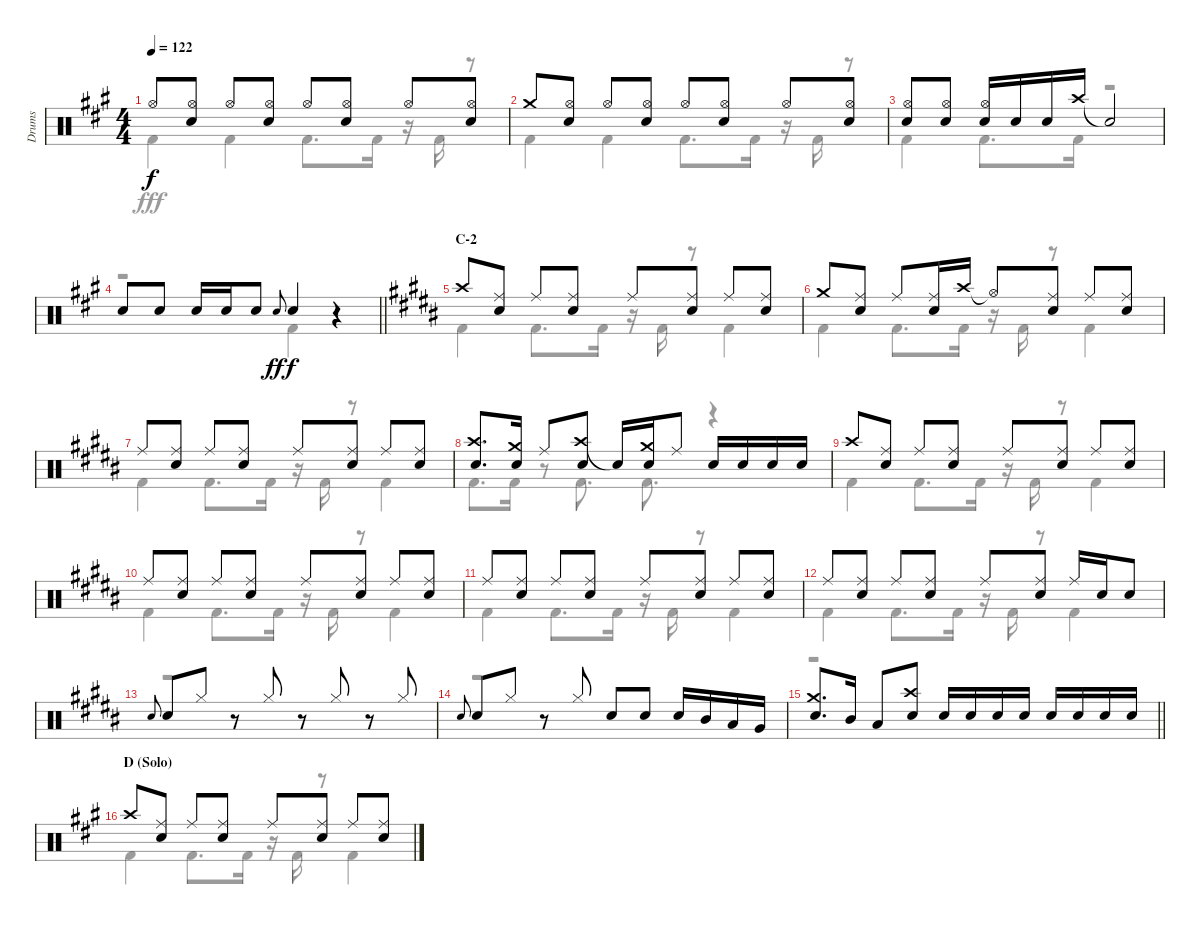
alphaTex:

\track ("Drums" "Drums") {instrument percussion}
\staff {score}
\articulation defaults
\voice
\ts (4 4)
\tempo 122
\clef neutral
\ks a "Hi-Hat (open)".8{dy f}
("Hi-Hat (open)" "Snare (hit) 2").8 "Hi-Hat (open)".8 ("Hi-Hat (open)" "Snare (hit) 2").8 "Hi-Hat (open)".8 ("Hi-Hat (open)" "Snare (hit) 2").8 "Hi-Hat (open)".8 ("Hi-Hat (open)" "Snare (hit) 2").8 |
"Crash medium (hit)".8 ("Hi-Hat (open)" "Snare (hit) 2").8 "Hi-Hat (open)".8 ("Hi-Hat (open)" "Snare (hit) 2").8 "Hi-Hat (open)".8 ("Hi-Hat (open)" "Snare (hit) 2").8 "Hi-Hat (open)".8 ("Hi-Hat (open)" "Snare (hit) 2").8 |
("Hi-Hat (open)" "Snare (hit) 2").8 ("Hi-Hat (open)" "Snare (hit) 2").8 ("Hi-Hat (open)" "Snare (hit) 2").16 "Snare (hit) 2".16 "Snare (hit) 2".16 "Crash high (hit)".16 "Snare (hit)"{t}.2 |
\barLineRight lightlight "Snare (hit) 2".8 "Snare (hit) 2".8 "Snare (hit) 2".16 "Snare (hit) 2".16 "Snare (hit) 2".8 "Snare (hit) 2".8{gr onbeat dy ff} "Snare (hit) 2".4{dy f}
r.4 |
\section ("" "C-2")
\ks b "Crash high (hit)".8
("Ride (middle)" "Snare (hit) 2").8 "Ride (middle)".8 ("Ride (middle)" "Snare (hit) 2").8 "Ride (middle)".8 ("Ride (middle)" "Snare (hit) 2").8 "Ride (middle)".8 ("Ride (middle)" "Snare (hit) 2").8 |
"Crash medium (hit)".8 ("Ride (middle)" "Snare (hit) 2").8 "Ride (middle)".8 ("Ride (middle)" "Snare (hit) 2").16 "Crash high (hit)".16 "Hi-Hat (open)"{t}.8 ("Ride (middle)" "Snare (hit) 2").8 "Ride (middle)".8 ("Ride (middle)" "Snare (hit) 2").8 |
"Ride (middle)".8 ("Ride (middle)" "Snare (hit) 2").8 "Ride (middle)".8 ("Ride (middle)" "Snare (hit) 2").8 "Ride (middle)".8 ("Ride (middle)" "Snare (hit) 2").8 "Ride (middle)".8 ("Ride (middle)" "Snare (hit) 2").8 |
("Crash high (hit)" "Snare (hit) 2").8{d} ("Crash medium (hit)" "Snare (hit) 2").16 "Ride (middle)".8 ("Crash high (hit)" "Snare (hit) 2").8 "Snare (hit)"{t}.16 ("Crash medium (hit)" "Snare (hit) 2").16 "Ride (middle)".8 "Snare (hit) 2".16 "Snare (hit) 2".16 "Snare (hit) 2".16 "Snare (hit) 2".16 |
"Crash high (hit)".8 ("Ride (middle)" "Snare (hit) 2").8 "Ride (middle)".8 ("Ride (middle)" "Snare (hit) 2").8 "Ride (middle)".8 ("Ride (middle)" "Snare (hit) 2").8 "Ride (middle)".8 ("Ride (middle)" "Snare (hit) 2").8 |
"Ride (middle)".8 ("Ride (middle)" "Snare (hit) 2").8 "Ride (middle)".8 ("Ride (middle)" "Snare (hit) 2").8 "Ride (middle)".8 ("Ride (middle)" "Snare (hit) 2").8 "Ride (middle)".8 ("Ride (middle)" "Snare (hit) 2").8 |
"Ride (middle)".8 ("Ride (middle)" "Snare (hit) 2").8 "Ride (middle)".8 ("Ride (middle)" "Snare (hit) 2").8 "Ride (middle)".8 ("Ride (middle)" "Snare (hit) 2").8 "Ride (middle)".8 ("Ride (middle)" "Snare (hit) 2").8 |
"Ride (middle)".8 ("Ride (middle)" "Snare (hit) 2").8 "Ride (middle)".8 ("Ride (middle)" "Snare (hit) 2").8 "Ride (middle)".8 ("Ride (middle)" "Snare (hit) 2").8 "Ride (middle)".16 "Snare (hit) 2".16 "Snare (hit) 2".8 |
"Snare (hit) 2".8{gr onbeat} "Snare (hit) 2".8 "Hi-Hat (closed)".8 r.8 "Hi-Hat (closed)".8 r.8 "Hi-Hat (closed)".8 r.8 "Hi-Hat (closed)".8 |
"Snare (hit) 2".8{gr onbeat} "Snare (hit) 2".8 "Hi-Hat (closed)".8 r.8 "Hi-Hat (closed)".8 "Snare (hit) 2".8 "Snare (hit) 2".8 "Snare (hit) 2".16 "Mid Tom (hit)".16 "Low Tom (hit)".16 "Very Low Tom (hit)".16 |
\barLineRight lightlight
("Crash medium (hit)" "Snare (hit) 2").8{d} "Mid Tom (hit)".16 "Low Tom (hit)".8 ("Crash high (hit)" "Snare (hit) 2").8 "Snare (hit) 2".16 "Snare (hit) 2".16 "Snare (hit) 2".16 "Snare (hit) 2".16 "Snare (hit) 2".16 "Snare (hit) 2".16 "Snare (hit) 2".16 "Snare (hit) 2".16 |
\section ("" "D (Solo)")
\ks a "Crash high (hit)".8
("Ride (middle)" "Snare (hit) 2").8 "Ride (middle)".8 ("Ride (middle)" "Snare (hit) 2").8 "Ride (middle)".8 ("Ride (middle)" "Snare (hit) 2").8 "Ride (middle)".8 ("Ride (middle)" "Snare (hit) 2").8
\voice
\clef neutral
\ottava regular
\simile none
\ks a "Kick (hit) 2".4{dy fff} "Kick (hit) 2".4 "Kick (hit) 2".8{d} "Kick (hit) 2".16
r.16 "Kick (hit) 2".16 r.8 |
"Kick (hit) 2".4 "Kick (hit) 2".4 "Kick (hit) 2".8{d} "Kick (hit) 2".16 r.16 "Kick (hit) 2".16 r.8 |
"Kick (hit) 2".4 "Kick (hit) 2".8{d} "Kick (hit) 2".16 r.2 |
\barLineRight lightlight
r.2 "Kick (hit) 2".4 r.4 |
\ks b "Kick (hit) 2".4 "Kick (hit) 2".8{d} "Kick (hit) 2".16
r.16 "Kick (hit) 2".16 r.8 "Kick (hit) 2".4 |
"Kick (hit) 2".4 "Kick (hit) 2".8{d} "Kick (hit) 2".16 r.16 "Kick (hit) 2".16 r.8 "Kick (hit) 2".4 |
"Kick (hit) 2".4 "Kick (hit) 2".8{d} "Kick (hit) 2".16 r.16 "Kick (hit) 2".16 r.8 "Kick (hit) 2".4 |
"Kick (hit) 2".8{d} "Kick (hit) 2".16 r.8 "Kick (hit) 2".8{d} "Kick (hit) 2".8{d} r.4 |
"Kick (hit) 2".4 "Kick (hit) 2".8{d} "Kick (hit) 2".16 r.16 "Kick (hit) 2".16 r.8 "Kick (hit) 2".4 |
"Kick (hit) 2".4 "Kick (hit) 2".8{d} "Kick (hit) 2".16 r.16 "Kick (hit) 2".16 r.8 "Kick (hit) 2".4 |
"Kick (hit) 2".4 "Kick (hit) 2".8{d} "Kick (hit) 2".16 r.16 "Kick (hit) 2".16 r.8 "Kick (hit) 2".4 |
"Kick (hit) 2".4 "Kick (hit) 2".8{d} "Kick (hit) 2".16 r.16 "Kick (hit) 2".16 r.8 "Kick (hit) 2".4 |
r.1 |
r.1 |
\barLineRight lightlight
r.1 |
\ks a "Kick (hit) 2".4 "Kick (hit) 2".8{d} "Kick (hit) 2".16
r.16 "Kick (hit) 2".16 r.8 "Kick (hit) 2".4
